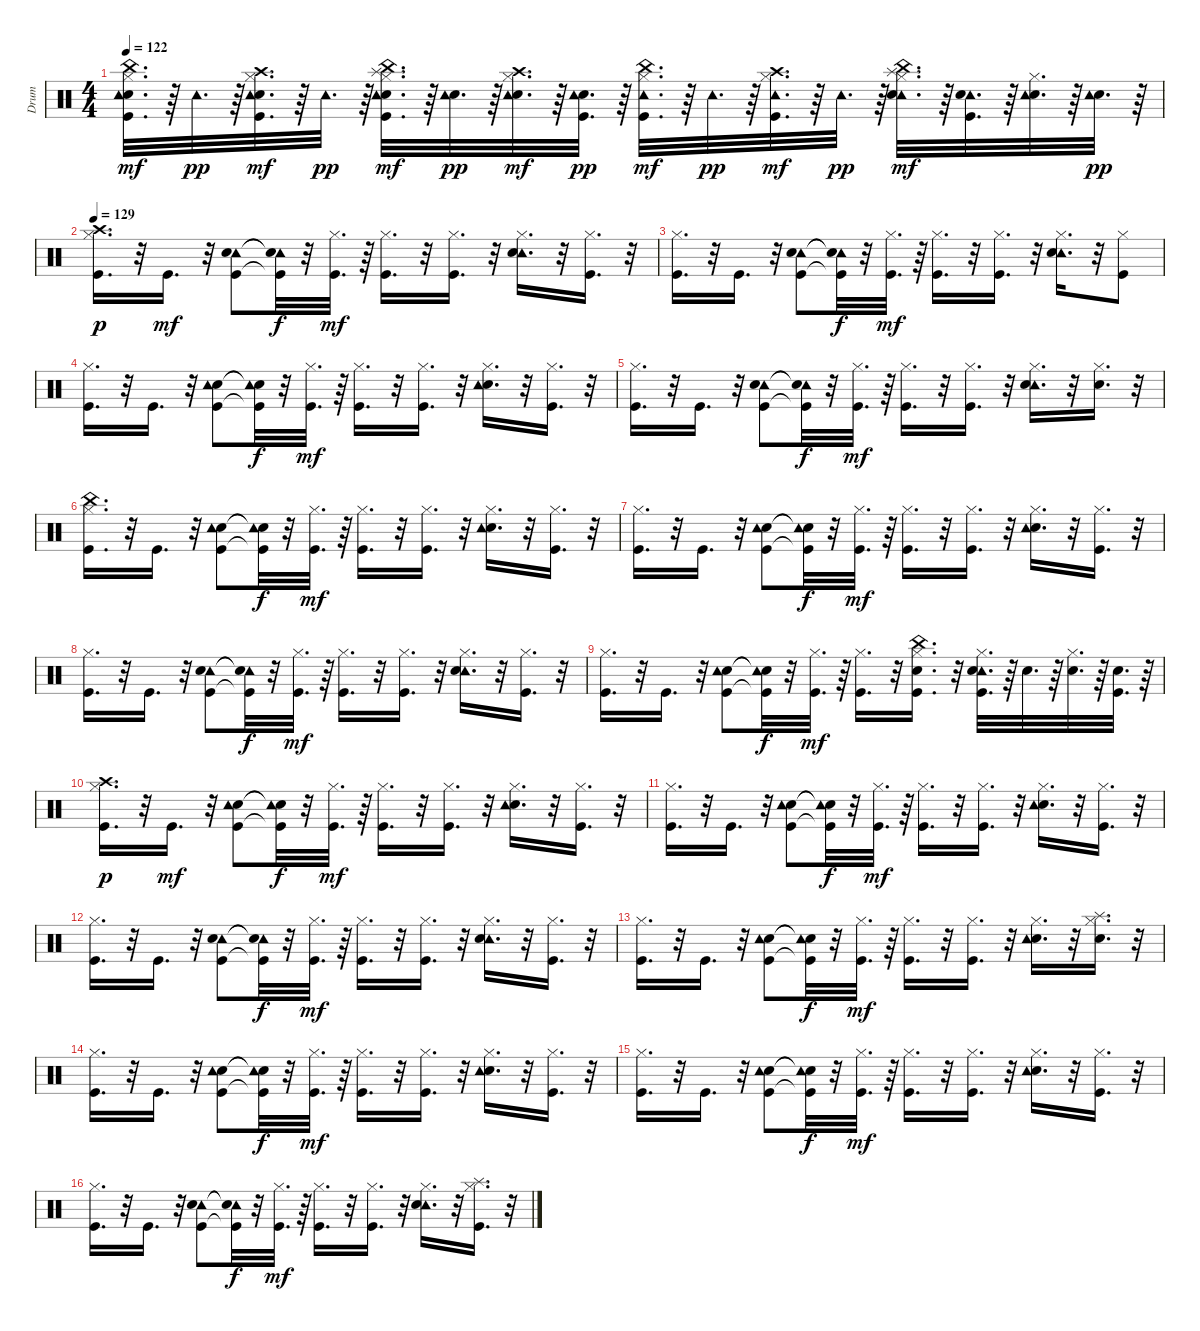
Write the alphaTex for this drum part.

\track ("Drum" "Drum") {instrument percussion}
\staff {score}
\articulation defaults
\ts (4 4)
\tempo 122
\clef neutral
\ks c
("China (hit)" "Snare (hit) 2" "Tambourine (hit)" "Kick (hit)" "Hi-Hat (closed)").32{d dy mf} r.64 "Tambourine (hit)".32{d dy pp} r.64 ("Crash high (hit)" "Snare (hit) 2" "Kick (hit)" "Tambourine (hit)" "Hi-Hat (closed)").32{d dy mf} r.64 "Tambourine (hit)".32{d dy pp} r.64 ("China (hit)" "Snare (hit) 2" "Splash (hit)" "Kick (hit)" "Tambourine (hit)" "Hi-Hat (closed)").32{d dy mf} r.64 ("Snare (hit) 2" "Tambourine (hit)").32{d dy pp} r.64 ("Crash high (hit)" "Snare (hit) 2" "Tambourine (hit)" "Hi-Hat (closed)").32{d dy mf} r.64 ("Snare (hit) 2" "Kick (hit)" "Tambourine (hit)").32{d dy pp} r.64 ("China (hit)" "Tambourine (hit)" "Hi-Hat (closed)" "Kick (hit)").32{d dy mf} r.64 "Tambourine (hit)".32{d dy pp} r.64 ("Crash high (hit)" "Tambourine (hit)" "Hi-Hat (closed)" "Kick (hit)").32{d dy mf} r.64 "Tambourine (hit)".32{d dy pp} r.64 ("China (hit)" "Tambourine (hit)" "Hi-Hat (closed)" "Snare (hit) 2" "Splash (hit)").32{d dy mf} r.64 ("Tambourine (hit)" "Snare (hit) 2" "Kick (hit)").32{d} r.64 ("Snare (hit) 2" "Tambourine (hit)" "Hi-Hat (closed)").32{d} r.64 ("Snare (hit) 2" "Tambourine (hit)").32{d dy pp} r.64 |
\tempo 129
("Hi-Hat (closed)" "Kick (hit)" "Crash high (hit)").16{d dy p} r.32 "Kick (hit)".16{d dy mf} r.32 ("Tambourine (hit)" "Kick (hit)" "Snare (hit) 2").8 ("Tambourine (hit)"{t} "Kick (hit)"{t} "Snare (hit) 2"{t}).32{dy f} r.32 ("Kick (hit)" "Hi-Hat (closed)").32{d dy mf} r.64 ("Kick (hit)" "Hi-Hat (closed)").16{d} r.32 ("Kick (hit)" "Hi-Hat (closed)").16{d} r.32 ("Tambourine (hit)" "Snare (hit) 2" "Hi-Hat (closed)").16{d} r.32 ("Kick (hit)" "Hi-Hat (closed)").16{d} r.32 |
("Hi-Hat (closed)" "Kick (hit)").16{d} r.32 "Kick (hit)".16{d} r.32 ("Tambourine (hit)" "Kick (hit)" "Snare (hit) 2").8 ("Tambourine (hit)"{t} "Kick (hit)"{t} "Snare (hit) 2"{t}).32{dy f} r.32 ("Kick (hit)" "Hi-Hat (closed)").32{d dy mf} r.64 ("Kick (hit)" "Hi-Hat (closed)").16{d} r.32 ("Kick (hit)" "Hi-Hat (closed)").16{d} r.32 ("Tambourine (hit)" "Snare (hit) 2" "Hi-Hat (closed)").16{d} r.32 ("Kick (hit)" "Hi-Hat (closed)").8 |
("Kick (hit)" "Hi-Hat (closed)").16{d} r.32 "Kick (hit)".16{d} r.32 ("Snare (hit) 2" "Kick (hit)" "Tambourine (hit)").8 ("Snare (hit) 2"{t} "Kick (hit)"{t} "Tambourine (hit)"{t}).32{dy f} r.32 ("Hi-Hat (closed)" "Kick (hit)").32{d dy mf} r.64 ("Hi-Hat (closed)" "Kick (hit)").16{d} r.32 ("Hi-Hat (closed)" "Kick (hit)").16{d} r.32 ("Hi-Hat (closed)" "Snare (hit) 2" "Tambourine (hit)").16{d} r.32 ("Hi-Hat (closed)" "Kick (hit)").16{d} r.32 |
("Hi-Hat (closed)" "Kick (hit)").16{d} r.32 "Kick (hit)".16{d} r.32 ("Tambourine (hit)" "Kick (hit)" "Snare (hit) 2").8 ("Tambourine (hit)"{t} "Kick (hit)"{t} "Snare (hit) 2"{t}).32{dy f} r.32 ("Kick (hit)" "Hi-Hat (closed)").32{d dy mf} r.64 ("Kick (hit)" "Hi-Hat (closed)").16{d} r.32 ("Kick (hit)" "Hi-Hat (closed)").16{d} r.32 ("Tambourine (hit)" "Snare (hit) 2" "Hi-Hat (closed)").16{d} r.32 ("Hi-Hat (closed)" "Snare (hit) 2").16{d} r.32 |
("Kick (hit)" "Hi-Hat (closed)" "China (hit)").16{d} r.32 "Kick (hit)".16{d} r.32 ("Snare (hit) 2" "Kick (hit)" "Tambourine (hit)").8 ("Snare (hit) 2"{t} "Kick (hit)"{t} "Tambourine (hit)"{t}).32{dy f} r.32 ("Hi-Hat (closed)" "Kick (hit)").32{d dy mf} r.64 ("Hi-Hat (closed)" "Kick (hit)").16{d} r.32 ("Hi-Hat (closed)" "Kick (hit)").16{d} r.32 ("Hi-Hat (closed)" "Snare (hit) 2" "Tambourine (hit)").16{d} r.32 ("Hi-Hat (closed)" "Kick (hit)").16{d} r.32 |
("Kick (hit)" "Hi-Hat (closed)").16{d} r.32 "Kick (hit)".16{d} r.32 ("Snare (hit) 2" "Kick (hit)" "Tambourine (hit)").8 ("Snare (hit) 2"{t} "Kick (hit)"{t} "Tambourine (hit)"{t}).32{dy f} r.32 ("Hi-Hat (closed)" "Kick (hit)").32{d dy mf} r.64 ("Hi-Hat (closed)" "Kick (hit)").16{d} r.32 ("Hi-Hat (closed)" "Kick (hit)").16{d} r.32 ("Hi-Hat (closed)" "Snare (hit) 2" "Tambourine (hit)").16{d} r.32 ("Hi-Hat (closed)" "Kick (hit)").16{d} r.32 |
("Hi-Hat (closed)" "Kick (hit)").16{d} r.32 "Kick (hit)".16{d} r.32 ("Tambourine (hit)" "Kick (hit)" "Snare (hit) 2").8 ("Tambourine (hit)"{t} "Kick (hit)"{t} "Snare (hit) 2"{t}).32{dy f} r.32 ("Kick (hit)" "Hi-Hat (closed)").32{d dy mf} r.64 ("Kick (hit)" "Hi-Hat (closed)").16{d} r.32 ("Kick (hit)" "Hi-Hat (closed)").16{d} r.32 ("Tambourine (hit)" "Snare (hit) 2" "Hi-Hat (closed)").16{d} r.32 ("Kick (hit)" "Hi-Hat (closed)").16{d} r.32 |
("Kick (hit)" "Hi-Hat (closed)").16{d} r.32 "Kick (hit)".16{d} r.32 ("Snare (hit) 2" "Kick (hit)" "Tambourine (hit)").8 ("Snare (hit) 2"{t} "Kick (hit)"{t} "Tambourine (hit)"{t}).32{dy f} r.32 ("Hi-Hat (closed)" "Kick (hit)").32{d dy mf} r.64 ("Hi-Hat (closed)" "Kick (hit)").16{d} r.32 ("Hi-Hat (closed)" "Kick (hit)" "Snare (hit) 2" "China (hit)").16{d} r.32 ("Hi-Hat (closed)" "Tambourine (hit)" "Kick (hit)" "Snare (hit) 2").32{d} r.64 "Snare (hit) 2".32{d} r.64 ("Hi-Hat (closed)" "Snare (hit) 2").32{d} r.64 ("Kick (hit)" "Snare (hit) 2").32{d} r.64 |
("Kick (hit)" "Hi-Hat (closed)" "Crash high (hit)").16{d dy p} r.32 "Kick (hit)".16{d dy mf} r.32 ("Snare (hit) 2" "Kick (hit)" "Tambourine (hit)").8 ("Snare (hit) 2"{t} "Kick (hit)"{t} "Tambourine (hit)"{t}).32{dy f} r.32 ("Hi-Hat (closed)" "Kick (hit)").32{d dy mf} r.64 ("Hi-Hat (closed)" "Kick (hit)").16{d} r.32 ("Hi-Hat (closed)" "Kick (hit)").16{d} r.32 ("Hi-Hat (closed)" "Snare (hit) 2" "Tambourine (hit)").16{d} r.32 ("Hi-Hat (closed)" "Kick (hit)").16{d} r.32 |
("Kick (hit)" "Hi-Hat (closed)").16{d} r.32 "Kick (hit)".16{d} r.32 ("Snare (hit) 2" "Kick (hit)" "Tambourine (hit)").8 ("Snare (hit) 2"{t} "Kick (hit)"{t} "Tambourine (hit)"{t}).32{dy f} r.32 ("Hi-Hat (closed)" "Kick (hit)").32{d dy mf} r.64 ("Hi-Hat (closed)" "Kick (hit)").16{d} r.32 ("Hi-Hat (closed)" "Kick (hit)").16{d} r.32 ("Hi-Hat (closed)" "Snare (hit) 2" "Tambourine (hit)").16{d} r.32 ("Hi-Hat (closed)" "Kick (hit)").16{d} r.32 |
("Hi-Hat (closed)" "Kick (hit)").16{d} r.32 "Kick (hit)".16{d} r.32 ("Tambourine (hit)" "Kick (hit)" "Snare (hit) 2").8 ("Tambourine (hit)"{t} "Kick (hit)"{t} "Snare (hit) 2"{t}).32{dy f} r.32 ("Kick (hit)" "Hi-Hat (closed)").32{d dy mf} r.64 ("Kick (hit)" "Hi-Hat (closed)").16{d} r.32 ("Kick (hit)" "Hi-Hat (closed)").16{d} r.32 ("Tambourine (hit)" "Snare (hit) 2" "Hi-Hat (closed)").16{d} r.32 ("Kick (hit)" "Hi-Hat (closed)").16{d} r.32 |
("Kick (hit)" "Hi-Hat (closed)").16{d} r.32 "Kick (hit)".16{d} r.32 ("Snare (hit) 2" "Kick (hit)" "Tambourine (hit)").8 ("Snare (hit) 2"{t} "Kick (hit)"{t} "Tambourine (hit)"{t}).32{dy f} r.32 ("Hi-Hat (closed)" "Kick (hit)").32{d dy mf} r.64 ("Hi-Hat (closed)" "Kick (hit)").16{d} r.32 ("Hi-Hat (closed)" "Kick (hit)").16{d} r.32 ("Hi-Hat (closed)" "Snare (hit) 2" "Tambourine (hit)").16{d} r.32 ("Snare (hit) 2" "Hi-Hat (closed)" "Splash (hit)").16{d} r.32 |
("Kick (hit)" "Hi-Hat (closed)").16{d} r.32 "Kick (hit)".16{d} r.32 ("Snare (hit) 2" "Kick (hit)" "Tambourine (hit)").8 ("Snare (hit) 2"{t} "Kick (hit)"{t} "Tambourine (hit)"{t}).32{dy f} r.32 ("Hi-Hat (closed)" "Kick (hit)").32{d dy mf} r.64 ("Hi-Hat (closed)" "Kick (hit)").16{d} r.32 ("Hi-Hat (closed)" "Kick (hit)").16{d} r.32 ("Hi-Hat (closed)" "Snare (hit) 2" "Tambourine (hit)").16{d} r.32 ("Hi-Hat (closed)" "Kick (hit)").16{d} r.32 |
("Kick (hit)" "Hi-Hat (closed)").16{d} r.32 "Kick (hit)".16{d} r.32 ("Snare (hit) 2" "Kick (hit)" "Tambourine (hit)").8 ("Snare (hit) 2"{t} "Kick (hit)"{t} "Tambourine (hit)"{t}).32{dy f} r.32 ("Hi-Hat (closed)" "Kick (hit)").32{d dy mf} r.64 ("Hi-Hat (closed)" "Kick (hit)").16{d} r.32 ("Hi-Hat (closed)" "Kick (hit)").16{d} r.32 ("Hi-Hat (closed)" "Snare (hit) 2" "Tambourine (hit)").16{d} r.32 ("Hi-Hat (closed)" "Kick (hit)").16{d} r.32 |
("Hi-Hat (closed)" "Kick (hit)").16{d} r.32 "Kick (hit)".16{d} r.32 ("Tambourine (hit)" "Kick (hit)" "Snare (hit) 2").8 ("Tambourine (hit)"{t} "Kick (hit)"{t} "Snare (hit) 2"{t}).32{dy f} r.32 ("Kick (hit)" "Hi-Hat (closed)").32{d dy mf} r.64 ("Kick (hit)" "Hi-Hat (closed)").16{d} r.32 ("Kick (hit)" "Hi-Hat (closed)").16{d} r.32 ("Tambourine (hit)" "Snare (hit) 2" "Hi-Hat (closed)").16{d} r.32 ("Kick (hit)" "Hi-Hat (closed)" "Splash (hit)").16{d} r.32
